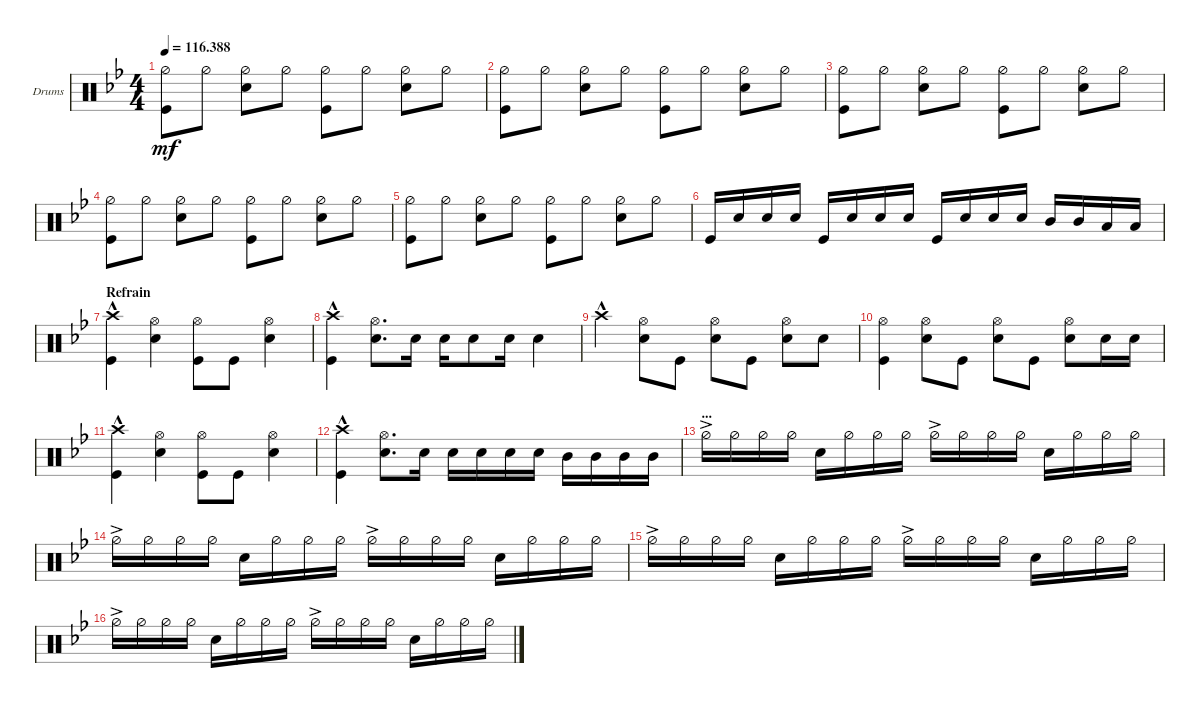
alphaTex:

\bracketExtendMode groupsimilarinstruments
\firstSystemTrackNameOrientation horizontal
\otherSystemsTrackNameOrientation horizontal
\track ("Drumkit" "Drums") {instrument percussion}
\staff {score}
\articulation defaults
\ts (4 4)
\tempo
116.388
\accidentals auto
\clef neutral
\ottava regular
\simile none
\ks gminor
("Hi-Hat (half)" "Kick (hit)").8{dy mf} "Hi-Hat (half)".8 ("Hi-Hat (half)" "Snare (hit) 2").8 "Hi-Hat (half)".8 ("Hi-Hat (half)" "Kick (hit)").8 "Hi-Hat (half)".8 ("Hi-Hat (half)" "Snare (hit) 2").8 "Hi-Hat (half)".8 |
("Hi-Hat (half)" "Kick (hit)").8 "Hi-Hat (half)".8 ("Hi-Hat (half)" "Snare (hit) 2").8 "Hi-Hat (half)".8 ("Hi-Hat (half)" "Kick (hit)").8 "Hi-Hat (half)".8 ("Hi-Hat (half)" "Snare (hit) 2").8 "Hi-Hat (half)".8 |
("Hi-Hat (half)" "Kick (hit)").8 "Hi-Hat (half)".8 ("Hi-Hat (half)" "Snare (hit) 2").8 "Hi-Hat (half)".8 ("Hi-Hat (half)" "Kick (hit)").8 "Hi-Hat (half)".8 ("Hi-Hat (half)" "Snare (hit) 2").8 "Hi-Hat (half)".8 |
("Hi-Hat (half)" "Kick (hit)").8 "Hi-Hat (half)".8 ("Hi-Hat (half)" "Snare (hit) 2").8 "Hi-Hat (half)".8 ("Hi-Hat (half)" "Kick (hit)").8 "Hi-Hat (half)".8 ("Hi-Hat (half)" "Snare (hit) 2").8 "Hi-Hat (half)".8 |
("Hi-Hat (half)" "Kick (hit)").8 "Hi-Hat (half)".8 ("Hi-Hat (half)" "Snare (hit) 2").8 "Hi-Hat (half)".8 ("Hi-Hat (half)" "Kick (hit)").8 "Hi-Hat (half)".8 ("Hi-Hat (half)" "Snare (hit) 2").8 "Hi-Hat (half)".8 |
"Kick (hit)".16 "Snare (hit) 2".16 "Snare (hit) 2".16 "Snare (hit) 2".16 "Kick (hit)".16 "Snare (hit) 2".16 "Snare (hit) 2".16 "Snare (hit) 2".16 "Kick (hit)".16 "Snare (hit) 2".16 "Snare (hit) 2".16 "Snare (hit) 2".16 "Mid Tom (hit)".16 "Mid Tom (hit)".16 "Low Tom (hit)".16 "Low Tom (hit)".16 |
\section ("" "Refrain")
("Crash high (hit)"{hac} "Kick (hit)").4 ("Hi-Hat (open)" "Snare (hit) 2").4 ("Hi-Hat (open)" "Kick (hit)").8 "Kick (hit)".8 ("Hi-Hat (open)" "Snare (hit) 2").4 |
("Crash high (hit)"{hac} "Kick (hit)").4 ("Hi-Hat (open)" "Snare (hit) 2").8{d} "Snare (hit) 2".16 "Snare (hit) 2".16 "Snare (hit) 2".8 "Snare (hit) 2".16 "Snare (hit) 2".4 |
"Crash high (hit)"{hac}.4 ("Snare (hit) 2" "Hi-Hat (open)").8 "Kick (hit)".8 ("Snare (hit) 2" "Hi-Hat (open)").8 "Kick (hit)".8 ("Snare (hit) 2" "Hi-Hat (open)").8 "Snare (hit) 2".8 |
("Kick (hit)" "Hi-Hat (open)").4 ("Snare (hit) 2" "Hi-Hat (open)").8 "Kick (hit)".8 ("Snare (hit) 2" "Hi-Hat (open)").8 "Kick (hit)".8 ("Snare (hit) 2" "Hi-Hat (open)").8 "Snare (hit) 2".16 "Snare (hit) 2".16 |
("Crash high (hit)"{hac} "Kick (hit)").4 ("Hi-Hat (open)" "Snare (hit) 2").4 ("Hi-Hat (open)" "Kick (hit)").8 "Kick (hit)".8 ("Hi-Hat (open)" "Snare (hit) 2").4 |
("Crash high (hit)"{hac} "Kick (hit)").4 ("Hi-Hat (open)" "Snare (hit) 2").8{d} "Snare (hit) 2".16 "Snare (hit) 2".16 "Snare (hit) 2".16 "Snare (hit) 2".16 "Snare (hit) 2".16 "Mid Tom (hit)".16 "Mid Tom (hit)".16 "Mid Tom (hit)".16 "Mid Tom (hit)".16 |
\section ("" "...")
"Hi-Hat (half)"{ac}.16 "Hi-Hat (half)".16 "Hi-Hat (half)".16 "Hi-Hat (half)".16 "Snare (hit) 2".16 "Hi-Hat (half)".16 "Hi-Hat (half)".16 "Hi-Hat (half)".16 "Hi-Hat (half)"{ac}.16 "Hi-Hat (half)".16 "Hi-Hat (half)".16 "Hi-Hat (half)".16 "Snare (hit) 2".16 "Hi-Hat (half)".16 "Hi-Hat (half)".16 "Hi-Hat (half)".16 |
"Hi-Hat (half)"{ac}.16 "Hi-Hat (half)".16 "Hi-Hat (half)".16 "Hi-Hat (half)".16 "Snare (hit) 2".16 "Hi-Hat (half)".16 "Hi-Hat (half)".16 "Hi-Hat (half)".16 "Hi-Hat (half)"{ac}.16 "Hi-Hat (half)".16 "Hi-Hat (half)".16 "Hi-Hat (half)".16 "Snare (hit) 2".16 "Hi-Hat (half)".16 "Hi-Hat (half)".16 "Hi-Hat (half)".16 |
"Hi-Hat (half)"{ac}.16 "Hi-Hat (half)".16 "Hi-Hat (half)".16 "Hi-Hat (half)".16 "Snare (hit) 2".16 "Hi-Hat (half)".16 "Hi-Hat (half)".16 "Hi-Hat (half)".16 "Hi-Hat (half)"{ac}.16 "Hi-Hat (half)".16 "Hi-Hat (half)".16 "Hi-Hat (half)".16 "Snare (hit) 2".16 "Hi-Hat (half)".16 "Hi-Hat (half)".16 "Hi-Hat (half)".16 |
"Hi-Hat (half)"{ac}.16 "Hi-Hat (half)".16 "Hi-Hat (half)".16 "Hi-Hat (half)".16 "Snare (hit) 2".16 "Hi-Hat (half)".16 "Hi-Hat (half)".16 "Hi-Hat (half)".16 "Hi-Hat (half)"{ac}.16 "Hi-Hat (half)".16 "Hi-Hat (half)".16 "Hi-Hat (half)".16 "Snare (hit) 2".16 "Hi-Hat (half)".16 "Hi-Hat (half)".16 "Hi-Hat (half)".16
